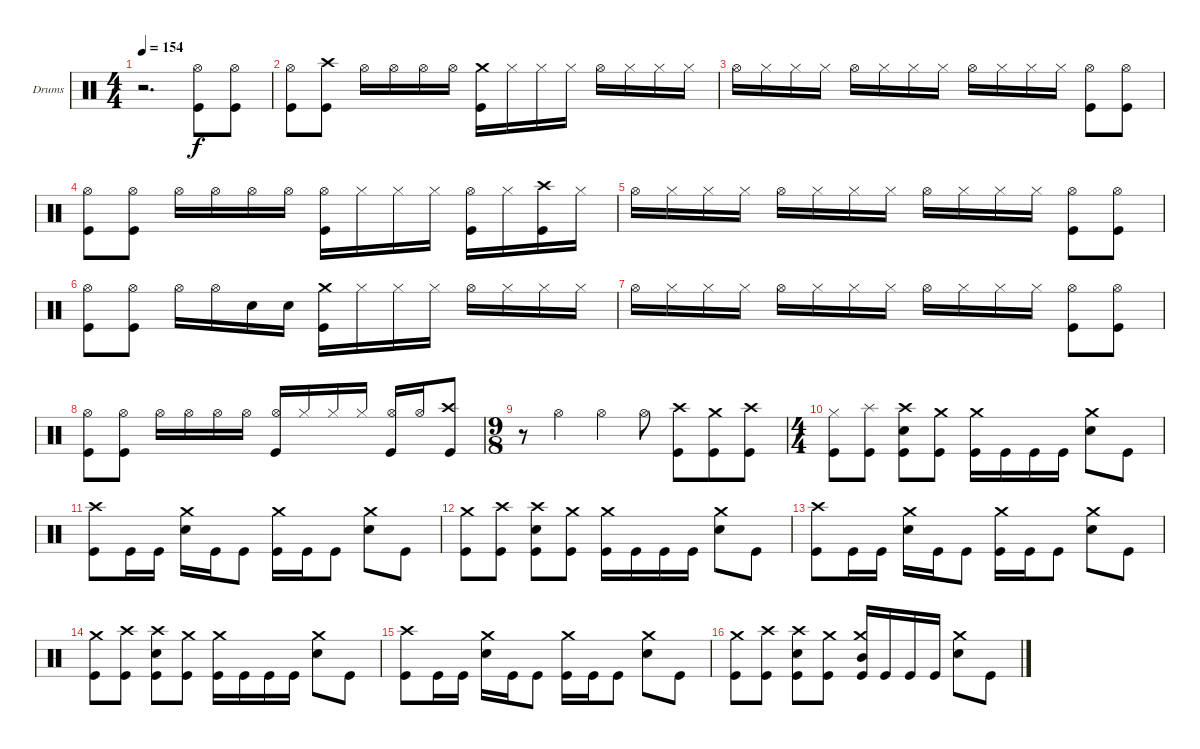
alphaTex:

\defaultSystemsLayout 4
\bracketExtendMode groupsimilarinstruments
\firstSystemTrackNameOrientation horizontal
\otherSystemsTrackNameOrientation horizontal
\track ("Moe Carlson" "Drums") {instrument percussion}
\staff {score}
\articulation defaults
\ts (4 4)
\tempo 154
\clef neutral
\ks c
r.2{d dy f} ("Kick (hit)" "Hi-Hat (open)").8 ("Kick (hit)" "Hi-Hat (open)").8 |
("Hi-Hat (open)" "Kick (hit)").8 ("Crash high (hit)" "Kick (hit)").8 "Hi-Hat (open)".16 "Hi-Hat (open)".16 "Hi-Hat (open)".16 "Hi-Hat (open)".16 ("Crash medium (hit)" "Kick (hit)").16 "Hi-Hat (closed)".16 "Hi-Hat (closed)".16 "Hi-Hat (closed)".16 "Hi-Hat (open)".16 "Hi-Hat (closed)".16 "Hi-Hat (closed)".16 "Hi-Hat (closed)".16 |
"Hi-Hat (open)".16 "Hi-Hat (closed)".16 "Hi-Hat (closed)".16 "Hi-Hat (closed)".16 "Hi-Hat (open)".16 "Hi-Hat (closed)".16 "Hi-Hat (closed)".16 "Hi-Hat (closed)".16 "Hi-Hat (open)".16 "Hi-Hat (closed)".16 "Hi-Hat (closed)".16 "Hi-Hat (closed)".16 ("Hi-Hat (open)" "Kick (hit)").8 ("Hi-Hat (open)" "Kick (hit)").8 |
("Kick (hit)" "Hi-Hat (open)").8 ("Kick (hit)" "Hi-Hat (open)").8 "Hi-Hat (open)".16 "Hi-Hat (open)".16 "Hi-Hat (open)".16 "Hi-Hat (open)".16 ("Hi-Hat (open)" "Kick (hit)").16 "Hi-Hat (closed)".16 "Hi-Hat (closed)".16 "Hi-Hat (closed)".16 ("Hi-Hat (open)" "Kick (hit)").16 "Hi-Hat (closed)".16 ("Crash high (hit)" "Kick (hit)").16 "Hi-Hat (closed)".16 |
"Hi-Hat (open)".16 "Hi-Hat (closed)".16 "Hi-Hat (closed)".16 "Hi-Hat (closed)".16 "Hi-Hat (open)".16 "Hi-Hat (closed)".16 "Hi-Hat (closed)".16 "Hi-Hat (closed)".16 "Hi-Hat (open)".16 "Hi-Hat (closed)".16 "Hi-Hat (closed)".16 "Hi-Hat (closed)".16 ("Hi-Hat (open)" "Kick (hit)").8 ("Hi-Hat (open)" "Kick (hit)").8 |
("Kick (hit)" "Hi-Hat (open)").8 ("Kick (hit)" "Hi-Hat (open)").8 "Hi-Hat (open)".16 "Hi-Hat (open)".16 "Snare (hit) 2".16 "Snare (hit) 2".16 ("Crash medium (hit)" "Kick (hit)").16 "Hi-Hat (closed)".16 "Hi-Hat (closed)".16 "Hi-Hat (closed)".16 "Hi-Hat (open)".16 "Hi-Hat (closed)".16 "Hi-Hat (closed)".16 "Hi-Hat (closed)".16 |
"Hi-Hat (open)".16 "Hi-Hat (closed)".16 "Hi-Hat (closed)".16 "Hi-Hat (closed)".16 "Hi-Hat (open)".16 "Hi-Hat (closed)".16 "Hi-Hat (closed)".16 "Hi-Hat (closed)".16 "Hi-Hat (open)".16 "Hi-Hat (closed)".16 "Hi-Hat (closed)".16 "Hi-Hat (closed)".16 ("Hi-Hat (open)" "Kick (hit)").8 ("Hi-Hat (open)" "Kick (hit)").8 |
("Kick (hit)" "Hi-Hat (open)").8 ("Kick (hit)" "Hi-Hat (open)").8 "Hi-Hat (open)".16 "Hi-Hat (open)".16 "Hi-Hat (open)".16 "Hi-Hat (open)".16 ("Hi-Hat (open)" "Kick (hit)").16 "Hi-Hat (closed)".16 "Hi-Hat (closed)".16 "Hi-Hat (closed)".16 ("Hi-Hat (open)" "Kick (hit)").16{beam invert} "Hi-Hat (open)".16 ("Crash high (hit)" "Kick (hit)").8 |
\ts (9 8)
r.8 "Hi-Hat (open)".4 "Hi-Hat (open)".4 "Hi-Hat (open)".8 ("Crash high (hit)" "Kick (hit)").8 ("Crash medium (hit)" "Kick (hit)").8 ("Crash high (hit)" "Kick (hit)").8 |
\ts (4 4)
("Kick (hit)" "Hi-Hat (closed)").8 ("Kick (hit)" "Splash (hit)").8 ("Kick (hit)" "Crash high (hit)" "Snare (hit) 2").8 ("Kick (hit)" "Crash medium (hit)").8 ("Kick (hit)" "Crash medium (hit)").16 "Kick (hit)".16 "Kick (hit)".16 "Kick (hit)".16 ("Snare (hit) 2" "Crash medium (hit)").8 "Kick (hit)".8 |
("Crash high (hit)" "Kick (hit)").8 "Kick (hit)".16 "Kick (hit)".16 ("Snare (hit) 2" "Crash medium (hit)").16 "Kick (hit)".16 "Kick (hit)".8 ("Kick (hit)" "Crash medium (hit)").16 "Kick (hit)".16 "Kick (hit)".8 ("Crash medium (hit)" "Snare (hit) 2").8 "Kick (hit)".8 |
("Kick (hit)" "Crash medium (hit)").8 ("Kick (hit)" "Crash high (hit)").8 ("Kick (hit)" "Crash high (hit)" "Snare (hit) 2").8 ("Kick (hit)" "Crash medium (hit)").8 ("Kick (hit)" "Crash medium (hit)").16 "Kick (hit)".16 "Kick (hit)".16 "Kick (hit)".16 ("Snare (hit) 2" "Crash medium (hit)").8 "Kick (hit)".8 |
("Crash high (hit)" "Kick (hit)").8 "Kick (hit)".16 "Kick (hit)".16 ("Snare (hit) 2" "Crash medium (hit)").16 "Kick (hit)".16 "Kick (hit)".8 ("Kick (hit)" "Crash medium (hit)").16 "Kick (hit)".16 "Kick (hit)".8 ("Crash medium (hit)" "Snare (hit) 2").8 "Kick (hit)".8 |
("Kick (hit)" "Crash medium (hit)").8 ("Kick (hit)" "Crash high (hit)").8 ("Kick (hit)" "Crash high (hit)" "Snare (hit) 2").8 ("Kick (hit)" "Crash medium (hit)").8 ("Kick (hit)" "Crash medium (hit)").16 "Kick (hit)".16 "Kick (hit)".16 "Kick (hit)".16 ("Snare (hit) 2" "Crash medium (hit)").8 "Kick (hit)".8 |
("Crash high (hit)" "Kick (hit)").8 "Kick (hit)".16 "Kick (hit)".16 ("Snare (hit) 2" "Crash medium (hit)").16 "Kick (hit)".16 "Kick (hit)".8 ("Kick (hit)" "Crash medium (hit)").16 "Kick (hit)".16 "Kick (hit)".8 ("Crash medium (hit)" "Snare (hit) 2").8 "Kick (hit)".8 |
("Kick (hit)" "Crash medium (hit)").8 ("Kick (hit)" "Crash high (hit)").8 ("Kick (hit)" "Crash high (hit)" "Snare (hit) 2").8 ("Kick (hit)" "Crash medium (hit)").8 ("Kick (hit)" "Crash medium (hit)" "Mid Tom (hit)").16 "Kick (hit)".16 "Kick (hit)".16 "Kick (hit)".16 ("Snare (hit) 2" "Crash medium (hit)").8 "Kick (hit)".8
